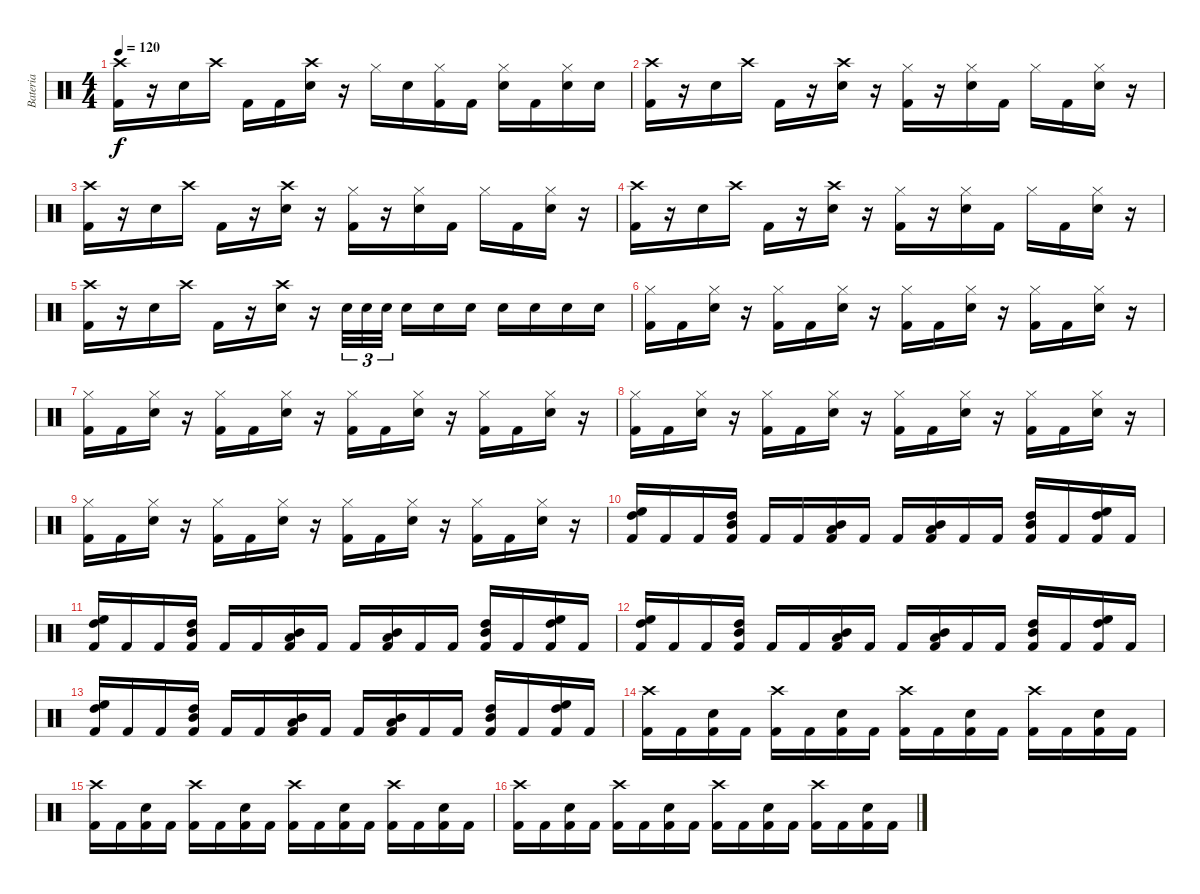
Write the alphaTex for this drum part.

\track ("Bateria" "Bateria") {instrument percussion}
\staff {score}
\articulation defaults
\ts (4 4)
\tempo 120
\clef neutral
\ks c
("Kick (hit) 2" "Crash high (hit)").16{dy f} r.16 "Snare (hit) 2".16 "Crash high (hit)".16 "Kick (hit) 2".16 "Kick (hit) 2".16 ("Snare (hit) 2" "Crash high (hit)").16 r.16 "Hi-Hat (closed)".16 "Snare (hit) 2".16 ("Kick (hit) 2" "Hi-Hat (closed)").16 "Kick (hit) 2".16 ("Snare (hit) 2" "Hi-Hat (closed)").16 "Kick (hit) 2".16 ("Snare (hit) 2" "Hi-Hat (closed)").16 "Snare (hit) 2".16 |
("Kick (hit) 2" "Crash high (hit)").16 r.16 "Snare (hit) 2".16 "Crash high (hit)".16 "Kick (hit) 2".16 r.16 ("Snare (hit) 2" "Crash high (hit)").16 r.16 ("Kick (hit) 2" "Hi-Hat (closed)").16 r.16 ("Snare (hit) 2" "Hi-Hat (closed)").16 "Kick (hit) 2".16 "Hi-Hat (closed)".16 "Kick (hit) 2".16 ("Snare (hit) 2" "Hi-Hat (closed)").16 r.16 |
("Kick (hit) 2" "Crash high (hit)").16 r.16 "Snare (hit) 2".16 "Crash high (hit)".16 "Kick (hit) 2".16 r.16 ("Snare (hit) 2" "Crash high (hit)").16 r.16 ("Kick (hit) 2" "Hi-Hat (closed)").16 r.16 ("Snare (hit) 2" "Hi-Hat (closed)").16 "Kick (hit) 2".16 "Hi-Hat (closed)".16 "Kick (hit) 2".16 ("Snare (hit) 2" "Hi-Hat (closed)").16 r.16 |
("Kick (hit) 2" "Crash high (hit)").16 r.16 "Snare (hit) 2".16 "Crash high (hit)".16 "Kick (hit) 2".16 r.16 ("Snare (hit) 2" "Crash high (hit)").16 r.16 ("Kick (hit) 2" "Hi-Hat (closed)").16 r.16 ("Snare (hit) 2" "Hi-Hat (closed)").16 "Kick (hit) 2".16 "Hi-Hat (closed)".16 "Kick (hit) 2".16 ("Snare (hit) 2" "Hi-Hat (closed)").16 r.16 |
("Kick (hit) 2" "Crash high (hit)").16 r.16 "Snare (hit) 2".16 "Crash high (hit)".16 "Kick (hit) 2".16 r.16 ("Snare (hit) 2" "Crash high (hit)").16 r.16 "Snare (hit) 2".32{tu (3 2)} "Snare (hit) 2".32{tu (3 2)} "Snare (hit) 2".32{tu (3 2) beam splitsecondary} "Snare (hit) 2".16 "Snare (hit) 2".16 "Snare (hit) 2".16 "Snare (hit) 2".16 "Snare (hit) 2".16 "Snare (hit) 2".16 "Snare (hit) 2".16 |
("Kick (hit) 2" "Hi-Hat (closed)").16 "Kick (hit) 2".16 ("Snare (hit) 2" "Hi-Hat (closed)").16 r.16 ("Kick (hit) 2" "Hi-Hat (closed)").16 "Kick (hit) 2".16 ("Snare (hit) 2" "Hi-Hat (closed)").16 r.16 ("Kick (hit) 2" "Hi-Hat (closed)").16 "Kick (hit) 2".16 ("Snare (hit) 2" "Hi-Hat (closed)").16 r.16 ("Kick (hit) 2" "Hi-Hat (closed)").16 "Kick (hit) 2".16 ("Snare (hit) 2" "Hi-Hat (closed)").16 r.16 |
("Kick (hit) 2" "Hi-Hat (closed)").16 "Kick (hit) 2".16 ("Snare (hit) 2" "Hi-Hat (closed)").16 r.16 ("Kick (hit) 2" "Hi-Hat (closed)").16 "Kick (hit) 2".16 ("Snare (hit) 2" "Hi-Hat (closed)").16 r.16 ("Kick (hit) 2" "Hi-Hat (closed)").16 "Kick (hit) 2".16 ("Snare (hit) 2" "Hi-Hat (closed)").16 r.16 ("Kick (hit) 2" "Hi-Hat (closed)").16 "Kick (hit) 2".16 ("Snare (hit) 2" "Hi-Hat (closed)").16 r.16 |
("Kick (hit) 2" "Hi-Hat (closed)").16 "Kick (hit) 2".16 ("Snare (hit) 2" "Hi-Hat (closed)").16 r.16 ("Kick (hit) 2" "Hi-Hat (closed)").16 "Kick (hit) 2".16 ("Snare (hit) 2" "Hi-Hat (closed)").16 r.16 ("Kick (hit) 2" "Hi-Hat (closed)").16 "Kick (hit) 2".16 ("Snare (hit) 2" "Hi-Hat (closed)").16 r.16 ("Kick (hit) 2" "Hi-Hat (closed)").16 "Kick (hit) 2".16 ("Snare (hit) 2" "Hi-Hat (closed)").16 r.16 |
("Kick (hit) 2" "Hi-Hat (closed)").16 "Kick (hit) 2".16 ("Snare (hit) 2" "Hi-Hat (closed)").16 r.16 ("Kick (hit) 2" "Hi-Hat (closed)").16 "Kick (hit) 2".16 ("Snare (hit) 2" "Hi-Hat (closed)").16 r.16 ("Kick (hit) 2" "Hi-Hat (closed)").16 "Kick (hit) 2".16 ("Snare (hit) 2" "Hi-Hat (closed)").16 r.16 ("Kick (hit) 2" "Hi-Hat (closed)").16 "Kick (hit) 2".16 ("Snare (hit) 2" "Hi-Hat (closed)").16 r.16 |
("Kick (hit) 2" "High Floor Tom (hit)" "High Tom (hit)").16 "Kick (hit) 2".16 "Kick (hit) 2".16 ("Kick (hit) 2" "High Tom (hit)" "Mid Tom (hit)").16 "Kick (hit) 2".16 "Kick (hit) 2".16 ("Kick (hit) 2" "Mid Tom (hit)" "Low Tom (hit)").16 "Kick (hit) 2".16 "Kick (hit) 2".16 ("Kick (hit) 2" "Mid Tom (hit)" "Low Tom (hit)").16 "Kick (hit) 2".16 "Kick (hit) 2".16 ("Kick (hit) 2" "High Tom (hit)" "Mid Tom (hit)").16 "Kick (hit) 2".16 ("Kick (hit) 2" "High Floor Tom (hit)" "High Tom (hit)").16 "Kick (hit) 2".16 |
("Kick (hit) 2" "High Floor Tom (hit)" "High Tom (hit)").16 "Kick (hit) 2".16 "Kick (hit) 2".16 ("Kick (hit) 2" "High Tom (hit)" "Mid Tom (hit)").16 "Kick (hit) 2".16 "Kick (hit) 2".16 ("Kick (hit) 2" "Mid Tom (hit)" "Low Tom (hit)").16 "Kick (hit) 2".16 "Kick (hit) 2".16 ("Kick (hit) 2" "Mid Tom (hit)" "Low Tom (hit)").16 "Kick (hit) 2".16 "Kick (hit) 2".16 ("Kick (hit) 2" "High Tom (hit)" "Mid Tom (hit)").16 "Kick (hit) 2".16 ("Kick (hit) 2" "High Floor Tom (hit)" "High Tom (hit)").16 "Kick (hit) 2".16 |
("Kick (hit) 2" "High Floor Tom (hit)" "High Tom (hit)").16 "Kick (hit) 2".16 "Kick (hit) 2".16 ("Kick (hit) 2" "High Tom (hit)" "Mid Tom (hit)").16 "Kick (hit) 2".16 "Kick (hit) 2".16 ("Kick (hit) 2" "Mid Tom (hit)" "Low Tom (hit)").16 "Kick (hit) 2".16 "Kick (hit) 2".16 ("Kick (hit) 2" "Mid Tom (hit)" "Low Tom (hit)").16 "Kick (hit) 2".16 "Kick (hit) 2".16 ("Kick (hit) 2" "High Tom (hit)" "Mid Tom (hit)").16 "Kick (hit) 2".16 ("Kick (hit) 2" "High Floor Tom (hit)" "High Tom (hit)").16 "Kick (hit) 2".16 |
("Kick (hit) 2" "High Floor Tom (hit)" "High Tom (hit)").16 "Kick (hit) 2".16 "Kick (hit) 2".16 ("Kick (hit) 2" "High Tom (hit)" "Mid Tom (hit)").16 "Kick (hit) 2".16 "Kick (hit) 2".16 ("Kick (hit) 2" "Mid Tom (hit)" "Low Tom (hit)").16 "Kick (hit) 2".16 "Kick (hit) 2".16 ("Kick (hit) 2" "Mid Tom (hit)" "Low Tom (hit)").16 "Kick (hit) 2".16 "Kick (hit) 2".16 ("Kick (hit) 2" "High Tom (hit)" "Mid Tom (hit)").16 "Kick (hit) 2".16 ("Kick (hit) 2" "High Floor Tom (hit)" "High Tom (hit)").16 "Kick (hit) 2".16 |
("Kick (hit) 2" "Crash high (hit)").16 "Kick (hit) 2".16 ("Kick (hit) 2" "Snare (hit) 2").16 "Kick (hit) 2".16 ("Kick (hit) 2" "Crash high (hit)").16 "Kick (hit) 2".16 ("Kick (hit) 2" "Snare (hit) 2").16 "Kick (hit) 2".16 ("Kick (hit) 2" "Crash high (hit)").16 "Kick (hit) 2".16 ("Kick (hit) 2" "Snare (hit) 2").16 "Kick (hit) 2".16 ("Kick (hit) 2" "Crash high (hit)").16 "Kick (hit) 2".16 ("Kick (hit) 2" "Snare (hit) 2").16 "Kick (hit) 2".16 |
("Kick (hit) 2" "Crash high (hit)").16 "Kick (hit) 2".16 ("Kick (hit) 2" "Snare (hit) 2").16 "Kick (hit) 2".16 ("Kick (hit) 2" "Crash high (hit)").16 "Kick (hit) 2".16 ("Kick (hit) 2" "Snare (hit) 2").16 "Kick (hit) 2".16 ("Kick (hit) 2" "Crash high (hit)").16 "Kick (hit) 2".16 ("Kick (hit) 2" "Snare (hit) 2").16 "Kick (hit) 2".16 ("Kick (hit) 2" "Crash high (hit)").16 "Kick (hit) 2".16 ("Kick (hit) 2" "Snare (hit) 2").16 "Kick (hit) 2".16 |
("Kick (hit) 2" "Crash high (hit)").16 "Kick (hit) 2".16 ("Kick (hit) 2" "Snare (hit) 2").16 "Kick (hit) 2".16 ("Kick (hit) 2" "Crash high (hit)").16 "Kick (hit) 2".16 ("Kick (hit) 2" "Snare (hit) 2").16 "Kick (hit) 2".16 ("Kick (hit) 2" "Crash high (hit)").16 "Kick (hit) 2".16 ("Kick (hit) 2" "Snare (hit) 2").16 "Kick (hit) 2".16 ("Kick (hit) 2" "Crash high (hit)").16 "Kick (hit) 2".16 ("Kick (hit) 2" "Snare (hit) 2").16 "Kick (hit) 2".16
